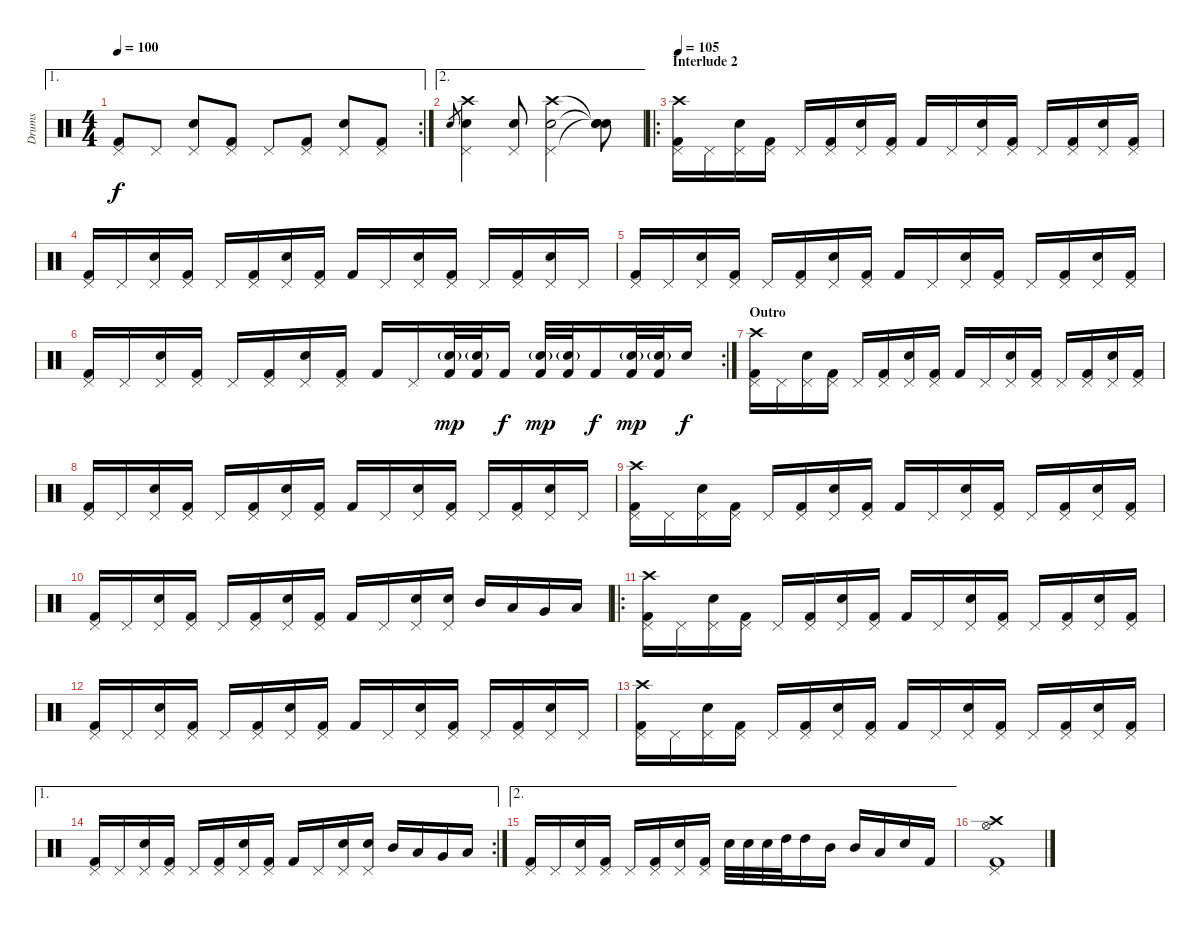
\track ("Drums" "Drums") {instrument percussion}
\staff {score}
\articulation defaults
\ae 1
\rc 2
\ts (4 4)
\tempo 100
\clef neutral
\ks c
("Kick (hit) 2" "Pedal Hi-Hat (hit)").8{dy f} "Pedal Hi-Hat (hit)".8 ("Snare (hit) 2" "Pedal Hi-Hat (hit)").8 ("Kick (hit) 2" "Pedal Hi-Hat (hit)").8 "Pedal Hi-Hat (hit)".8 ("Kick (hit) 2" "Pedal Hi-Hat (hit)").8 ("Snare (hit) 2" "Pedal Hi-Hat (hit)").8 ("Kick (hit) 2" "Pedal Hi-Hat (hit)").8 |
\ae 2 "Snare (hit) 2".8{gr}
("Snare (hit) 2" "Pedal Hi-Hat (hit)" "Crash high (hit)").4 ("Snare (hit) 2" "Pedal Hi-Hat (hit)").8 ("Snare (hit) 2" "Pedal Hi-Hat (hit)" "Crash high (hit)").2 ("Snare (hit)"{t} "Snare (hit)"{t} "Snare (hit)"{t}).8 |
\ro
\section ("" "Interlude 2")
\tempo 105
("Kick (hit) 2" "Pedal Hi-Hat (hit)" "Crash high (hit)").16 "Pedal Hi-Hat (hit)".16 ("Snare (hit) 2" "Pedal Hi-Hat (hit)").16 ("Kick (hit) 2" "Pedal Hi-Hat (hit)").16 "Pedal Hi-Hat (hit)".16 ("Kick (hit) 2" "Pedal Hi-Hat (hit)").16 ("Snare (hit) 2" "Pedal Hi-Hat (hit)").16 ("Kick (hit) 2" "Pedal Hi-Hat (hit)").16 "Kick (hit) 2".16 "Pedal Hi-Hat (hit)".16 ("Snare (hit) 2" "Pedal Hi-Hat (hit)").16 ("Kick (hit) 2" "Pedal Hi-Hat (hit)").16 "Pedal Hi-Hat (hit)".16 ("Kick (hit) 2" "Pedal Hi-Hat (hit)").16 ("Snare (hit) 2" "Pedal Hi-Hat (hit)").16 ("Kick (hit) 2" "Pedal Hi-Hat (hit)").16 |
("Kick (hit) 2" "Pedal Hi-Hat (hit)").16 "Pedal Hi-Hat (hit)".16 ("Snare (hit) 2" "Pedal Hi-Hat (hit)").16 ("Kick (hit) 2" "Pedal Hi-Hat (hit)").16 "Pedal Hi-Hat (hit)".16 ("Kick (hit) 2" "Pedal Hi-Hat (hit)").16 ("Snare (hit) 2" "Pedal Hi-Hat (hit)").16 ("Kick (hit) 2" "Pedal Hi-Hat (hit)").16 "Kick (hit) 2".16 "Pedal Hi-Hat (hit)".16 ("Snare (hit) 2" "Pedal Hi-Hat (hit)").16 ("Kick (hit) 2" "Pedal Hi-Hat (hit)").16 "Pedal Hi-Hat (hit)".16 ("Kick (hit) 2" "Pedal Hi-Hat (hit)").16 ("Snare (hit) 2" "Pedal Hi-Hat (hit)").16 "Pedal Hi-Hat (hit)".16 |
("Kick (hit) 2" "Pedal Hi-Hat (hit)").16 "Pedal Hi-Hat (hit)".16 ("Snare (hit) 2" "Pedal Hi-Hat (hit)").16 ("Kick (hit) 2" "Pedal Hi-Hat (hit)").16 "Pedal Hi-Hat (hit)".16 ("Kick (hit) 2" "Pedal Hi-Hat (hit)").16 ("Snare (hit) 2" "Pedal Hi-Hat (hit)").16 ("Kick (hit) 2" "Pedal Hi-Hat (hit)").16 "Kick (hit) 2".16 "Pedal Hi-Hat (hit)".16 ("Snare (hit) 2" "Pedal Hi-Hat (hit)").16 ("Kick (hit) 2" "Pedal Hi-Hat (hit)").16 "Pedal Hi-Hat (hit)".16 ("Kick (hit) 2" "Pedal Hi-Hat (hit)").16 ("Snare (hit) 2" "Pedal Hi-Hat (hit)").16 ("Kick (hit) 2" "Pedal Hi-Hat (hit)").16 |
\rc 2
("Kick (hit) 2" "Pedal Hi-Hat (hit)").16 "Pedal Hi-Hat (hit)".16 ("Snare (hit) 2" "Pedal Hi-Hat (hit)").16 ("Kick (hit) 2" "Pedal Hi-Hat (hit)").16 "Pedal Hi-Hat (hit)".16 ("Kick (hit) 2" "Pedal Hi-Hat (hit)").16 ("Snare (hit) 2" "Pedal Hi-Hat (hit)").16 ("Kick (hit) 2" "Pedal Hi-Hat (hit)").16 "Kick (hit) 2".16 "Pedal Hi-Hat (hit)".16 ("Kick (hit) 2" "Snare (hit) 2"{g}).32{dy mp} ("Kick (hit) 2" "Snare (hit) 2"{g}).32 "Kick (hit) 2".16{dy f} ("Kick (hit) 2" "Snare (hit) 2"{g}).32{dy mp} ("Kick (hit) 2" "Snare (hit) 2"{g}).32 "Kick (hit) 2".16{dy f} ("Kick (hit) 2" "Snare (hit) 2"{g}).32{dy mp} ("Kick (hit) 2" "Snare (hit) 2"{g}).32 "Snare (hit) 2".16{dy f} |
\section ("" "Outro")
("Kick (hit) 2" "Pedal Hi-Hat (hit)" "Crash high (hit)").16 "Pedal Hi-Hat (hit)".16 ("Snare (hit) 2" "Pedal Hi-Hat (hit)").16 ("Kick (hit) 2" "Pedal Hi-Hat (hit)").16 "Pedal Hi-Hat (hit)".16 ("Kick (hit) 2" "Pedal Hi-Hat (hit)").16 ("Snare (hit) 2" "Pedal Hi-Hat (hit)").16 ("Kick (hit) 2" "Pedal Hi-Hat (hit)").16 "Kick (hit) 2".16 "Pedal Hi-Hat (hit)".16 ("Snare (hit) 2" "Pedal Hi-Hat (hit)").16 ("Kick (hit) 2" "Pedal Hi-Hat (hit)").16 "Pedal Hi-Hat (hit)".16 ("Kick (hit) 2" "Pedal Hi-Hat (hit)").16 ("Snare (hit) 2" "Pedal Hi-Hat (hit)").16 ("Kick (hit) 2" "Pedal Hi-Hat (hit)").16 |
("Kick (hit) 2" "Pedal Hi-Hat (hit)").16 "Pedal Hi-Hat (hit)".16 ("Snare (hit) 2" "Pedal Hi-Hat (hit)").16 ("Kick (hit) 2" "Pedal Hi-Hat (hit)").16 "Pedal Hi-Hat (hit)".16 ("Kick (hit) 2" "Pedal Hi-Hat (hit)").16 ("Snare (hit) 2" "Pedal Hi-Hat (hit)").16 ("Kick (hit) 2" "Pedal Hi-Hat (hit)").16 "Kick (hit) 2".16 "Pedal Hi-Hat (hit)".16 ("Snare (hit) 2" "Pedal Hi-Hat (hit)").16 ("Kick (hit) 2" "Pedal Hi-Hat (hit)").16 "Pedal Hi-Hat (hit)".16 ("Kick (hit) 2" "Pedal Hi-Hat (hit)").16 ("Snare (hit) 2" "Pedal Hi-Hat (hit)").16 "Pedal Hi-Hat (hit)".16 |
("Kick (hit) 2" "Pedal Hi-Hat (hit)" "Crash high (hit)").16 "Pedal Hi-Hat (hit)".16 ("Snare (hit) 2" "Pedal Hi-Hat (hit)").16 ("Kick (hit) 2" "Pedal Hi-Hat (hit)").16 "Pedal Hi-Hat (hit)".16 ("Kick (hit) 2" "Pedal Hi-Hat (hit)").16 ("Snare (hit) 2" "Pedal Hi-Hat (hit)").16 ("Kick (hit) 2" "Pedal Hi-Hat (hit)").16 "Kick (hit) 2".16 "Pedal Hi-Hat (hit)".16 ("Snare (hit) 2" "Pedal Hi-Hat (hit)").16 ("Kick (hit) 2" "Pedal Hi-Hat (hit)").16 "Pedal Hi-Hat (hit)".16 ("Kick (hit) 2" "Pedal Hi-Hat (hit)").16 ("Snare (hit) 2" "Pedal Hi-Hat (hit)").16 ("Kick (hit) 2" "Pedal Hi-Hat (hit)").16 |
("Kick (hit) 2" "Pedal Hi-Hat (hit)").16 "Pedal Hi-Hat (hit)".16 ("Snare (hit) 2" "Pedal Hi-Hat (hit)").16 ("Kick (hit) 2" "Pedal Hi-Hat (hit)").16 "Pedal Hi-Hat (hit)".16 ("Kick (hit) 2" "Pedal Hi-Hat (hit)").16 ("Snare (hit) 2" "Pedal Hi-Hat (hit)").16 ("Kick (hit) 2" "Pedal Hi-Hat (hit)").16 "Kick (hit) 2".16 "Pedal Hi-Hat (hit)".16 ("Snare (hit) 2" "Pedal Hi-Hat (hit)").16 ("Snare (hit) 2" "Pedal Hi-Hat (hit)").16 "Mid Tom (hit)".16 "Low Tom (hit)".16 "Very Low Tom (hit)".16 "Low Floor Tom (hit)".16 |
\ro
("Kick (hit) 2" "Pedal Hi-Hat (hit)" "Crash high (hit)").16 "Pedal Hi-Hat (hit)".16 ("Snare (hit) 2" "Pedal Hi-Hat (hit)").16 ("Kick (hit) 2" "Pedal Hi-Hat (hit)").16 "Pedal Hi-Hat (hit)".16 ("Kick (hit) 2" "Pedal Hi-Hat (hit)").16 ("Snare (hit) 2" "Pedal Hi-Hat (hit)").16 ("Kick (hit) 2" "Pedal Hi-Hat (hit)").16 "Kick (hit) 2".16 "Pedal Hi-Hat (hit)".16 ("Snare (hit) 2" "Pedal Hi-Hat (hit)").16 ("Kick (hit) 2" "Pedal Hi-Hat (hit)").16 "Pedal Hi-Hat (hit)".16 ("Kick (hit) 2" "Pedal Hi-Hat (hit)").16 ("Snare (hit) 2" "Pedal Hi-Hat (hit)").16 ("Kick (hit) 2" "Pedal Hi-Hat (hit)").16 |
("Kick (hit) 2" "Pedal Hi-Hat (hit)").16 "Pedal Hi-Hat (hit)".16 ("Snare (hit) 2" "Pedal Hi-Hat (hit)").16 ("Kick (hit) 2" "Pedal Hi-Hat (hit)").16 "Pedal Hi-Hat (hit)".16 ("Kick (hit) 2" "Pedal Hi-Hat (hit)").16 ("Snare (hit) 2" "Pedal Hi-Hat (hit)").16 ("Kick (hit) 2" "Pedal Hi-Hat (hit)").16 "Kick (hit) 2".16 "Pedal Hi-Hat (hit)".16 ("Snare (hit) 2" "Pedal Hi-Hat (hit)").16 ("Kick (hit) 2" "Pedal Hi-Hat (hit)").16 "Pedal Hi-Hat (hit)".16 ("Kick (hit) 2" "Pedal Hi-Hat (hit)").16 ("Snare (hit) 2" "Pedal Hi-Hat (hit)").16 "Pedal Hi-Hat (hit)".16 |
("Kick (hit) 2" "Pedal Hi-Hat (hit)" "Crash high (hit)").16 "Pedal Hi-Hat (hit)".16 ("Snare (hit) 2" "Pedal Hi-Hat (hit)").16 ("Kick (hit) 2" "Pedal Hi-Hat (hit)").16 "Pedal Hi-Hat (hit)".16 ("Kick (hit) 2" "Pedal Hi-Hat (hit)").16 ("Snare (hit) 2" "Pedal Hi-Hat (hit)").16 ("Kick (hit) 2" "Pedal Hi-Hat (hit)").16 "Kick (hit) 2".16 "Pedal Hi-Hat (hit)".16 ("Snare (hit) 2" "Pedal Hi-Hat (hit)").16 ("Kick (hit) 2" "Pedal Hi-Hat (hit)").16 "Pedal Hi-Hat (hit)".16 ("Kick (hit) 2" "Pedal Hi-Hat (hit)").16 ("Snare (hit) 2" "Pedal Hi-Hat (hit)").16 ("Kick (hit) 2" "Pedal Hi-Hat (hit)").16 |
\ae 1
\rc 2
("Kick (hit) 2" "Pedal Hi-Hat (hit)").16 "Pedal Hi-Hat (hit)".16 ("Snare (hit) 2" "Pedal Hi-Hat (hit)").16 ("Kick (hit) 2" "Pedal Hi-Hat (hit)").16 "Pedal Hi-Hat (hit)".16 ("Kick (hit) 2" "Pedal Hi-Hat (hit)").16 ("Snare (hit) 2" "Pedal Hi-Hat (hit)").16 ("Kick (hit) 2" "Pedal Hi-Hat (hit)").16 "Kick (hit) 2".16 "Pedal Hi-Hat (hit)".16 ("Snare (hit) 2" "Pedal Hi-Hat (hit)").16 ("Snare (hit) 2" "Pedal Hi-Hat (hit)").16 "Mid Tom (hit)".16 "Low Tom (hit)".16 "Very Low Tom (hit)".16 "Low Floor Tom (hit)".16 |
\ae 2
("Kick (hit) 2" "Pedal Hi-Hat (hit)").16 "Pedal Hi-Hat (hit)".16 ("Snare (hit) 2" "Pedal Hi-Hat (hit)").16 ("Kick (hit) 2" "Pedal Hi-Hat (hit)").16 "Pedal Hi-Hat (hit)".16 ("Kick (hit) 2" "Pedal Hi-Hat (hit)").16 ("Snare (hit) 2" "Pedal Hi-Hat (hit)").16 ("Kick (hit) 2" "Pedal Hi-Hat (hit)").16 "Snare (hit) 2".32 "Snare (hit) 2".32 "Snare (hit) 2".32 "High Tom (hit)".32 "High Tom (hit)".16 "Mid Tom (hit)".16 "Mid Tom (hit)".16 "Low Tom (hit)".16 "Snare (hit) 2".16 "Kick (hit) 2".16 |
("Kick (hit) 2" "Pedal Hi-Hat (hit)" "Hi-Hat (open)" "Crash high (hit)").1
